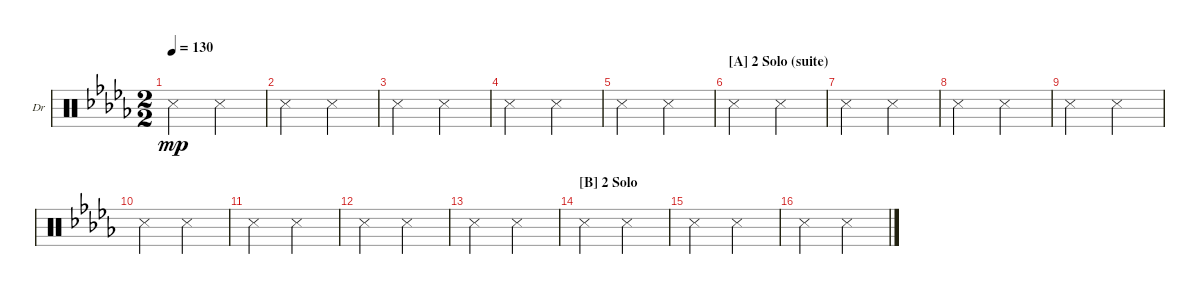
\defaultSystemsLayout 4
\bracketExtendMode nobrackets
\firstSystemTrackNameOrientation horizontal
\otherSystemsTrackNameOrientation horizontal
\chordDiagramsInScore
\track ("Drums" "Dr") {instrument percussion}
\staff {score}
\articulation defaults
\ts (2 2)
\tempo 130
\clef neutral
\ks db "Snare (side stick) 3".2{dy mp} "Snare (side stick) 3".2
|
"Snare (side stick) 3".2 "Snare (side stick) 3".2 |
"Snare (side stick) 3".2 "Snare (side stick) 3".2 |
"Snare (side stick) 3".2 "Snare (side stick) 3".2 |
"Snare (side stick) 3".2 "Snare (side stick) 3".2 |
\section ("A" "2 Solo (suite)")
"Snare (side stick) 3".2 "Snare (side stick) 3".2 |
"Snare (side stick) 3".2 "Snare (side stick) 3".2 |
"Snare (side stick) 3".2 "Snare (side stick) 3".2 |
"Snare (side stick) 3".2 "Snare (side stick) 3".2 |
"Snare (side stick) 3".2 "Snare (side stick) 3".2 |
"Snare (side stick) 3".2 "Snare (side stick) 3".2 |
"Snare (side stick) 3".2 "Snare (side stick) 3".2 |
"Snare (side stick) 3".2 "Snare (side stick) 3".2 |
\section ("B" "2 Solo")
"Snare (side stick) 3".2 "Snare (side stick) 3".2 |
"Snare (side stick) 3".2 "Snare (side stick) 3".2 |
"Snare (side stick) 3".2 "Snare (side stick) 3".2
